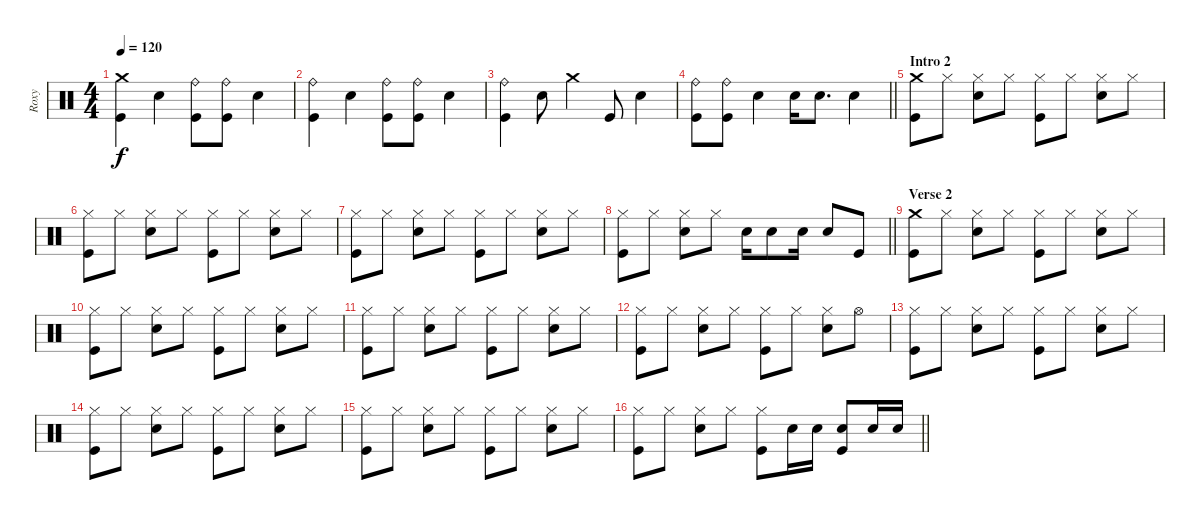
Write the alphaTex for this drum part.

\track ("Roxy" "Roxy") {instrument percussion}
\staff {score}
\articulation defaults
\ts (4 4)
\tempo 120
\clef neutral
\ks c
("Crash medium (hit)" "Kick (hit)").4{dy f} "Electric Snare (hit)".4 ("Ride (bell)" "Kick (hit)").8 ("Ride (bell)" "Kick (hit)").8 "Electric Snare (hit)".4 |
("Ride (bell)" "Kick (hit)").4 "Electric Snare (hit)".4 ("Ride (bell)" "Kick (hit)").8 ("Ride (bell)" "Kick (hit)").8 "Electric Snare (hit)".4 |
("Ride (bell)" "Kick (hit)").4 "Electric Snare (hit)".8 "Crash medium (hit)".4 "Kick (hit)".8 "Electric Snare (hit)".4 |
\barLineRight lightlight
("Ride (bell)" "Kick (hit)").8 ("Ride (bell)" "Kick (hit)").8 "Electric Snare (hit)".4 "Electric Snare (hit)".16 "Electric Snare (hit)".8{d} "Electric Snare (hit)".4 |
\section ("" "Intro 2")
("Crash medium (hit)" "Kick (hit)").8 "Hi-Hat (closed)".8 ("Hi-Hat (closed)" "Electric Snare (hit)").8 "Hi-Hat (closed)".8 ("Hi-Hat (closed)" "Kick (hit)").8 "Hi-Hat (closed)".8 ("Hi-Hat (closed)" "Electric Snare (hit)").8 "Hi-Hat (closed)".8 |
("Hi-Hat (closed)" "Kick (hit)").8 "Hi-Hat (closed)".8 ("Hi-Hat (closed)" "Electric Snare (hit)").8 "Hi-Hat (closed)".8 ("Hi-Hat (closed)" "Kick (hit)").8 "Hi-Hat (closed)".8 ("Hi-Hat (closed)" "Electric Snare (hit)").8 "Hi-Hat (closed)".8 |
("Hi-Hat (closed)" "Kick (hit)").8 "Hi-Hat (closed)".8 ("Hi-Hat (closed)" "Electric Snare (hit)").8 "Hi-Hat (closed)".8 ("Hi-Hat (closed)" "Kick (hit)").8 "Hi-Hat (closed)".8 ("Hi-Hat (closed)" "Electric Snare (hit)").8 "Hi-Hat (closed)".8 |
\barLineRight lightlight
("Hi-Hat (closed)" "Kick (hit)").8 "Hi-Hat (closed)".8 ("Hi-Hat (closed)" "Electric Snare (hit)").8 "Hi-Hat (closed)".8 "Electric Snare (hit)".16 "Electric Snare (hit)".8 "Electric Snare (hit)".16 "Electric Snare (hit)".8 "Kick (hit)".8 |
\section ("" "Verse 2")
("Crash medium (hit)" "Kick (hit)").8 "Hi-Hat (closed)".8 ("Hi-Hat (closed)" "Electric Snare (hit)").8 "Hi-Hat (closed)".8 ("Hi-Hat (closed)" "Kick (hit)").8 "Hi-Hat (closed)".8 ("Hi-Hat (closed)" "Electric Snare (hit)").8 "Hi-Hat (closed)".8 |
("Hi-Hat (closed)" "Kick (hit)").8 "Hi-Hat (closed)".8 ("Hi-Hat (closed)" "Electric Snare (hit)").8 "Hi-Hat (closed)".8 ("Hi-Hat (closed)" "Kick (hit)").8 "Hi-Hat (closed)".8 ("Hi-Hat (closed)" "Electric Snare (hit)").8 "Hi-Hat (closed)".8 |
("Hi-Hat (closed)" "Kick (hit)").8 "Hi-Hat (closed)".8 ("Hi-Hat (closed)" "Electric Snare (hit)").8 "Hi-Hat (closed)".8 ("Hi-Hat (closed)" "Kick (hit)").8 "Hi-Hat (closed)".8 ("Hi-Hat (closed)" "Electric Snare (hit)").8 "Hi-Hat (closed)".8 |
("Hi-Hat (closed)" "Kick (hit)").8 "Hi-Hat (closed)".8 ("Hi-Hat (closed)" "Electric Snare (hit)").8 "Hi-Hat (closed)".8 ("Hi-Hat (closed)" "Kick (hit)").8 "Hi-Hat (closed)".8 ("Hi-Hat (closed)" "Electric Snare (hit)").8 "Hi-Hat (open)".8 |
("Hi-Hat (closed)" "Kick (hit)").8 "Hi-Hat (closed)".8 ("Hi-Hat (closed)" "Electric Snare (hit)").8 "Hi-Hat (closed)".8 ("Hi-Hat (closed)" "Kick (hit)").8 "Hi-Hat (closed)".8 ("Hi-Hat (closed)" "Electric Snare (hit)").8 "Hi-Hat (closed)".8 |
("Hi-Hat (closed)" "Kick (hit)").8 "Hi-Hat (closed)".8 ("Hi-Hat (closed)" "Electric Snare (hit)").8 "Hi-Hat (closed)".8 ("Hi-Hat (closed)" "Kick (hit)").8 "Hi-Hat (closed)".8 ("Hi-Hat (closed)" "Electric Snare (hit)").8 "Hi-Hat (closed)".8 |
("Hi-Hat (closed)" "Kick (hit)").8 "Hi-Hat (closed)".8 ("Hi-Hat (closed)" "Electric Snare (hit)").8 "Hi-Hat (closed)".8 ("Hi-Hat (closed)" "Kick (hit)").8 "Hi-Hat (closed)".8 ("Hi-Hat (closed)" "Electric Snare (hit)").8 "Hi-Hat (closed)".8 |
\barLineRight lightlight
("Hi-Hat (closed)" "Kick (hit)").8 "Hi-Hat (closed)".8 ("Hi-Hat (closed)" "Electric Snare (hit)").8 "Hi-Hat (closed)".8 ("Hi-Hat (closed)" "Kick (hit)").8 "Electric Snare (hit)".16 "Electric Snare (hit)".16 ("Electric Snare (hit)" "Kick (hit)").8 "Electric Snare (hit)".16 "Electric Snare (hit)".16
